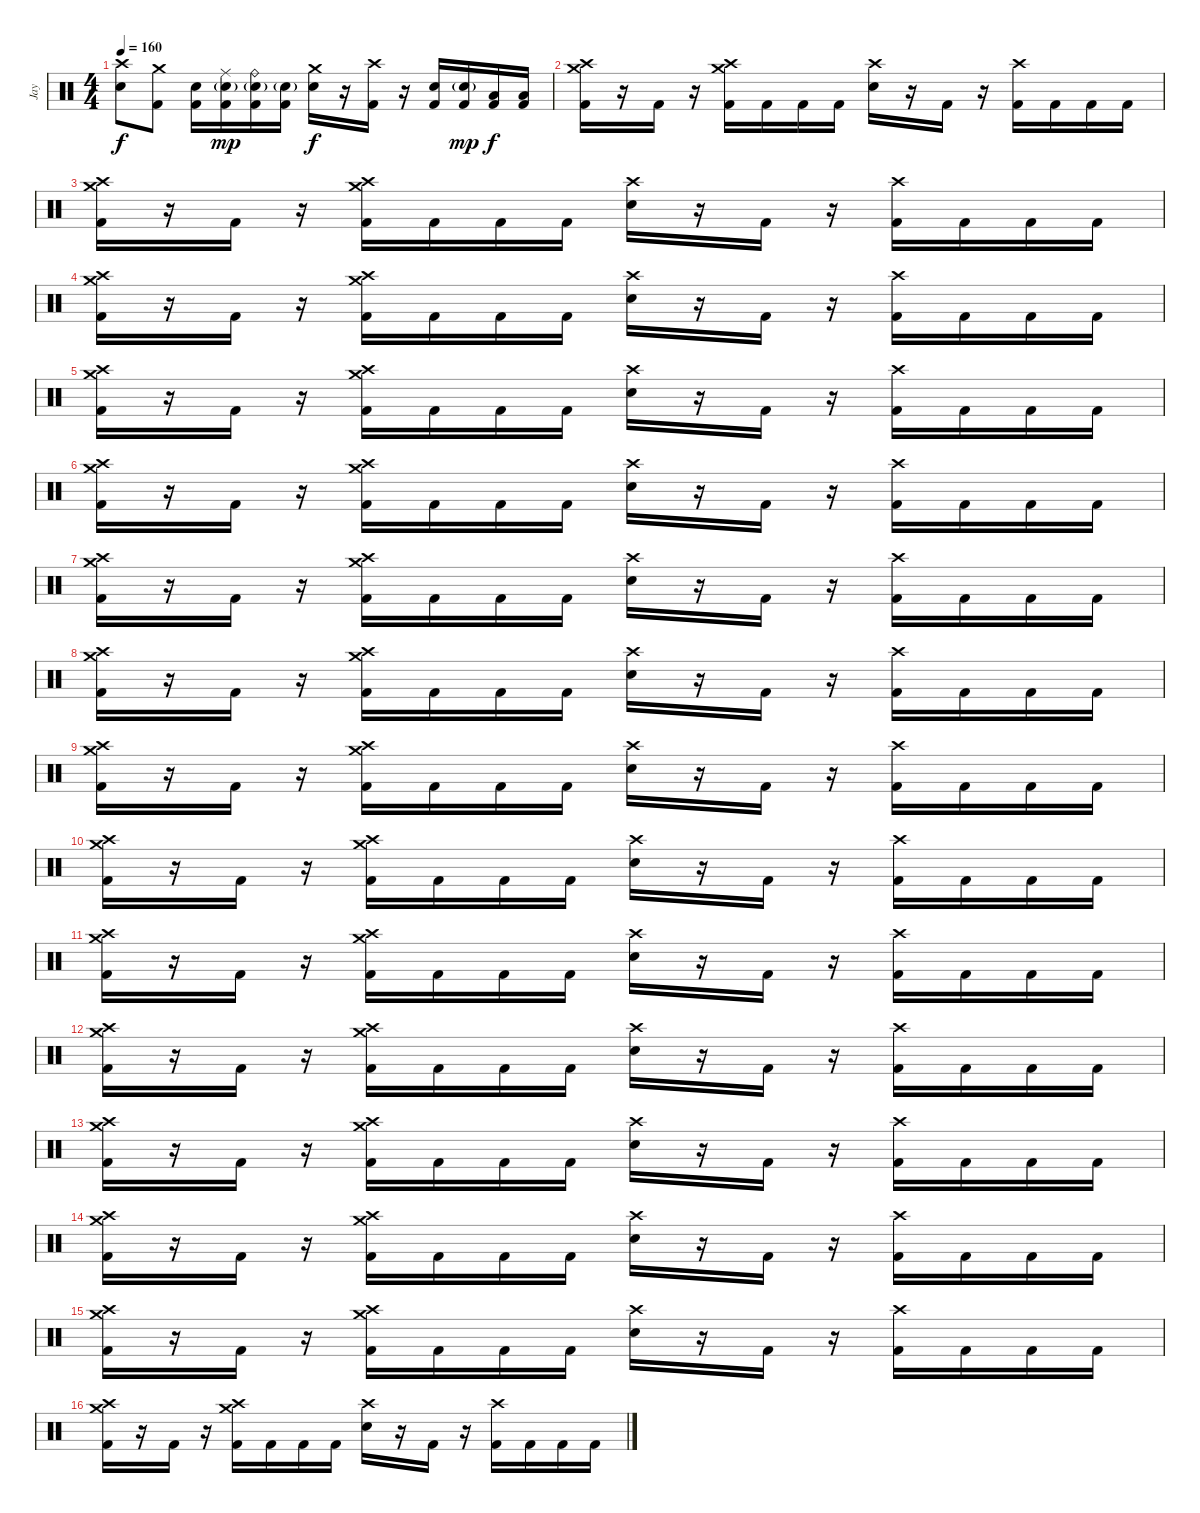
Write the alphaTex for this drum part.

\track ("Jay" "Jay") {instrument percussion}
\staff {score}
\articulation defaults
\ts (4 4)
\tempo 160
\clef neutral
\ks c
("Crash high (hit)" "Electric Snare (hit)").8{dy f} ("Crash medium (hit)" "Kick (hit) 2").8 ("Electric Snare (hit)" "Kick (hit) 2").16 ("Ride (middle)" "Electric Snare (hit)"{g} "Kick (hit) 2").16{dy mp} ("Ride (bell)" "Electric Snare (hit)"{g} "Kick (hit) 2").16 ("Electric Snare (hit)"{g} "Kick (hit) 2").16 ("Crash medium (hit)" "Electric Snare (hit)").16{dy f} r.16 ("Crash high (hit)" "Kick (hit) 2").16 r.16 ("Electric Snare (hit)" "Kick (hit) 2").16 ("Electric Snare (hit)"{g} "Kick (hit) 2").16{dy mp} ("Low Tom (hit)" "Kick (hit) 2").16{dy f} ("Low Tom (hit)" "Kick (hit) 2").16 |
("Crash high (hit)" "Crash medium (hit)" "Kick (hit) 2").16 r.16 "Kick (hit) 2".16 r.16 ("Crash high (hit)" "Crash medium (hit)" "Kick (hit) 2").16 "Kick (hit) 2".16 "Kick (hit) 2".16 "Kick (hit) 2".16 ("Crash high (hit)" "Electric Snare (hit)").16 r.16 "Kick (hit) 2".16 r.16 ("Crash high (hit)" "Kick (hit) 2").16 "Kick (hit) 2".16 "Kick (hit) 2".16 "Kick (hit) 2".16 |
("Crash high (hit)" "Crash medium (hit)" "Kick (hit) 2").16 r.16 "Kick (hit) 2".16 r.16 ("Crash high (hit)" "Crash medium (hit)" "Kick (hit) 2").16 "Kick (hit) 2".16 "Kick (hit) 2".16 "Kick (hit) 2".16 ("Crash high (hit)" "Electric Snare (hit)").16 r.16 "Kick (hit) 2".16 r.16 ("Crash high (hit)" "Kick (hit) 2").16 "Kick (hit) 2".16 "Kick (hit) 2".16 "Kick (hit) 2".16 |
("Crash high (hit)" "Crash medium (hit)" "Kick (hit) 2").16 r.16 "Kick (hit) 2".16 r.16 ("Crash high (hit)" "Crash medium (hit)" "Kick (hit) 2").16 "Kick (hit) 2".16 "Kick (hit) 2".16 "Kick (hit) 2".16 ("Crash high (hit)" "Electric Snare (hit)").16 r.16 "Kick (hit) 2".16 r.16 ("Crash high (hit)" "Kick (hit) 2").16 "Kick (hit) 2".16 "Kick (hit) 2".16 "Kick (hit) 2".16 |
("Crash high (hit)" "Crash medium (hit)" "Kick (hit) 2").16 r.16 "Kick (hit) 2".16 r.16 ("Crash high (hit)" "Crash medium (hit)" "Kick (hit) 2").16 "Kick (hit) 2".16 "Kick (hit) 2".16 "Kick (hit) 2".16 ("Crash high (hit)" "Electric Snare (hit)").16 r.16 "Kick (hit) 2".16 r.16 ("Crash high (hit)" "Kick (hit) 2").16 "Kick (hit) 2".16 "Kick (hit) 2".16 "Kick (hit) 2".16 |
("Crash high (hit)" "Crash medium (hit)" "Kick (hit) 2").16 r.16 "Kick (hit) 2".16 r.16 ("Crash high (hit)" "Crash medium (hit)" "Kick (hit) 2").16 "Kick (hit) 2".16 "Kick (hit) 2".16 "Kick (hit) 2".16 ("Crash high (hit)" "Electric Snare (hit)").16 r.16 "Kick (hit) 2".16 r.16 ("Crash high (hit)" "Kick (hit) 2").16 "Kick (hit) 2".16 "Kick (hit) 2".16 "Kick (hit) 2".16 |
("Crash high (hit)" "Crash medium (hit)" "Kick (hit) 2").16 r.16 "Kick (hit) 2".16 r.16 ("Crash high (hit)" "Crash medium (hit)" "Kick (hit) 2").16 "Kick (hit) 2".16 "Kick (hit) 2".16 "Kick (hit) 2".16 ("Crash high (hit)" "Electric Snare (hit)").16 r.16 "Kick (hit) 2".16 r.16 ("Crash high (hit)" "Kick (hit) 2").16 "Kick (hit) 2".16 "Kick (hit) 2".16 "Kick (hit) 2".16 |
("Crash high (hit)" "Crash medium (hit)" "Kick (hit) 2").16 r.16 "Kick (hit) 2".16 r.16 ("Crash high (hit)" "Crash medium (hit)" "Kick (hit) 2").16 "Kick (hit) 2".16 "Kick (hit) 2".16 "Kick (hit) 2".16 ("Crash high (hit)" "Electric Snare (hit)").16 r.16 "Kick (hit) 2".16 r.16 ("Crash high (hit)" "Kick (hit) 2").16 "Kick (hit) 2".16 "Kick (hit) 2".16 "Kick (hit) 2".16 |
("Crash high (hit)" "Crash medium (hit)" "Kick (hit) 2").16 r.16 "Kick (hit) 2".16 r.16 ("Crash high (hit)" "Crash medium (hit)" "Kick (hit) 2").16 "Kick (hit) 2".16 "Kick (hit) 2".16 "Kick (hit) 2".16 ("Crash high (hit)" "Electric Snare (hit)").16 r.16 "Kick (hit) 2".16 r.16 ("Crash high (hit)" "Kick (hit) 2").16 "Kick (hit) 2".16 "Kick (hit) 2".16 "Kick (hit) 2".16 |
("Crash high (hit)" "Crash medium (hit)" "Kick (hit) 2").16 r.16 "Kick (hit) 2".16 r.16 ("Crash high (hit)" "Crash medium (hit)" "Kick (hit) 2").16 "Kick (hit) 2".16 "Kick (hit) 2".16 "Kick (hit) 2".16 ("Crash high (hit)" "Electric Snare (hit)").16 r.16 "Kick (hit) 2".16 r.16 ("Crash high (hit)" "Kick (hit) 2").16 "Kick (hit) 2".16 "Kick (hit) 2".16 "Kick (hit) 2".16 |
("Crash high (hit)" "Crash medium (hit)" "Kick (hit) 2").16 r.16 "Kick (hit) 2".16 r.16 ("Crash high (hit)" "Crash medium (hit)" "Kick (hit) 2").16 "Kick (hit) 2".16 "Kick (hit) 2".16 "Kick (hit) 2".16 ("Crash high (hit)" "Electric Snare (hit)").16 r.16 "Kick (hit) 2".16 r.16 ("Crash high (hit)" "Kick (hit) 2").16 "Kick (hit) 2".16 "Kick (hit) 2".16 "Kick (hit) 2".16 |
("Crash high (hit)" "Crash medium (hit)" "Kick (hit) 2").16 r.16 "Kick (hit) 2".16 r.16 ("Crash high (hit)" "Crash medium (hit)" "Kick (hit) 2").16 "Kick (hit) 2".16 "Kick (hit) 2".16 "Kick (hit) 2".16 ("Crash high (hit)" "Electric Snare (hit)").16 r.16 "Kick (hit) 2".16 r.16 ("Crash high (hit)" "Kick (hit) 2").16 "Kick (hit) 2".16 "Kick (hit) 2".16 "Kick (hit) 2".16 |
("Crash high (hit)" "Crash medium (hit)" "Kick (hit) 2").16 r.16 "Kick (hit) 2".16 r.16 ("Crash high (hit)" "Crash medium (hit)" "Kick (hit) 2").16 "Kick (hit) 2".16 "Kick (hit) 2".16 "Kick (hit) 2".16 ("Crash high (hit)" "Electric Snare (hit)").16 r.16 "Kick (hit) 2".16 r.16 ("Crash high (hit)" "Kick (hit) 2").16 "Kick (hit) 2".16 "Kick (hit) 2".16 "Kick (hit) 2".16 |
("Crash high (hit)" "Crash medium (hit)" "Kick (hit) 2").16 r.16 "Kick (hit) 2".16 r.16 ("Crash high (hit)" "Crash medium (hit)" "Kick (hit) 2").16 "Kick (hit) 2".16 "Kick (hit) 2".16 "Kick (hit) 2".16 ("Crash high (hit)" "Electric Snare (hit)").16 r.16 "Kick (hit) 2".16 r.16 ("Crash high (hit)" "Kick (hit) 2").16 "Kick (hit) 2".16 "Kick (hit) 2".16 "Kick (hit) 2".16 |
("Crash high (hit)" "Crash medium (hit)" "Kick (hit) 2").16 r.16 "Kick (hit) 2".16 r.16 ("Crash high (hit)" "Crash medium (hit)" "Kick (hit) 2").16 "Kick (hit) 2".16 "Kick (hit) 2".16 "Kick (hit) 2".16 ("Crash high (hit)" "Electric Snare (hit)").16 r.16 "Kick (hit) 2".16 r.16 ("Crash high (hit)" "Kick (hit) 2").16 "Kick (hit) 2".16 "Kick (hit) 2".16 "Kick (hit) 2".16 |
("Crash high (hit)" "Crash medium (hit)" "Kick (hit) 2").16 r.16 "Kick (hit) 2".16 r.16 ("Crash high (hit)" "Crash medium (hit)" "Kick (hit) 2").16 "Kick (hit) 2".16 "Kick (hit) 2".16 "Kick (hit) 2".16 ("Crash high (hit)" "Electric Snare (hit)").16 r.16 "Kick (hit) 2".16 r.16 ("Crash high (hit)" "Kick (hit) 2").16 "Kick (hit) 2".16 "Kick (hit) 2".16 "Kick (hit) 2".16
